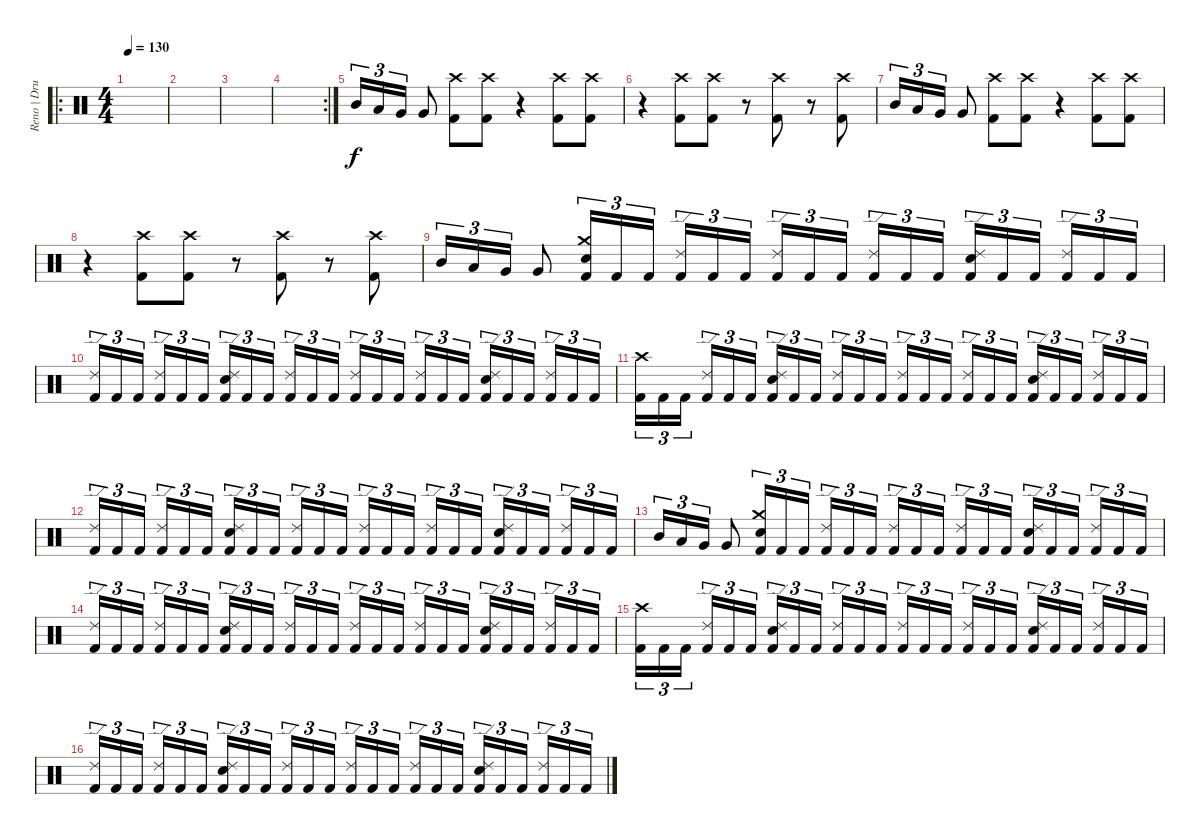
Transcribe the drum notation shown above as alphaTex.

\track ("Reno | Drums" "Reno | Dru") {instrument percussion}
\staff {score}
\articulation defaults
\ro
\ts (4 4)
\tempo 130
\clef neutral
\ks c
|
|
|
\rc 2
|
"Mid Tom (hit)".16{tu (3 2)} "Low Tom (hit)".16{tu (3 2)} "Very Low Tom (hit)".16{tu (3 2)} "Very Low Tom (hit)".8 ("Crash high (hit)" "Kick (hit) 2").8 ("Crash high (hit)" "Kick (hit) 2").8 r.4 ("Crash high (hit)" "Kick (hit) 2").8 ("Crash high (hit)" "Kick (hit) 2").8 |
r.4 ("Crash high (hit)" "Kick (hit) 2").8 ("Crash high (hit)" "Kick (hit) 2").8 r.8 ("Crash high (hit)" "Kick (hit) 2").8 r.8 ("Crash high (hit)" "Kick (hit) 2").8 |
"Mid Tom (hit)".16{tu (3 2)} "Low Tom (hit)".16{tu (3 2)} "Very Low Tom (hit)".16{tu (3 2)} "Very Low Tom (hit)".8 ("Crash high (hit)" "Kick (hit) 2").8 ("Crash high (hit)" "Kick (hit) 2").8 r.4 ("Crash high (hit)" "Kick (hit) 2").8 ("Crash high (hit)" "Kick (hit) 2").8 |
r.4 ("Crash high (hit)" "Kick (hit) 2").8 ("Crash high (hit)" "Kick (hit) 2").8 r.8 ("Crash high (hit)" "Kick (hit) 2").8 r.8 ("Crash high (hit)" "Kick (hit) 2").8 |
"Mid Tom (hit)".16{tu (3 2)} "Low Tom (hit)".16{tu (3 2)} "Very Low Tom (hit)".16{tu (3 2)} "Very Low Tom (hit)".8 ("Crash medium (hit)" "Electric Snare (hit)" "Kick (hit) 2").16{tu (3 2)} "Kick (hit) 2".16{tu (3 2)} "Kick (hit) 2".16{tu (3 2)} ("Ride (edge) 2" "Kick (hit) 2").16{tu (3 2)} "Kick (hit) 2".16{tu (3 2)} "Kick (hit) 2".16{tu (3 2)} ("Ride (edge) 2" "Kick (hit) 2").16{tu (3 2)} "Kick (hit) 2".16{tu (3 2)} "Kick (hit) 2".16{tu (3 2)} ("Ride (edge) 2" "Kick (hit) 2").16{tu (3 2)} "Kick (hit) 2".16{tu (3 2)} "Kick (hit) 2".16{tu (3 2)} ("Ride (edge) 2" "Electric Snare (hit)" "Kick (hit) 2").16{tu (3 2)} "Kick (hit) 2".16{tu (3 2)} "Kick (hit) 2".16{tu (3 2)} ("Ride (edge) 2" "Kick (hit) 2").16{tu (3 2)} "Kick (hit) 2".16{tu (3 2)} "Kick (hit) 2".16{tu (3 2)} |
("Ride (edge) 2" "Kick (hit) 2").16{tu (3 2)} "Kick (hit) 2".16{tu (3 2)} "Kick (hit) 2".16{tu (3 2)} ("Ride (edge) 2" "Kick (hit) 2").16{tu (3 2)} "Kick (hit) 2".16{tu (3 2)} "Kick (hit) 2".16{tu (3 2)} ("Ride (edge) 2" "Electric Snare (hit)" "Kick (hit) 2").16{tu (3 2)} "Kick (hit) 2".16{tu (3 2)} "Kick (hit) 2".16{tu (3 2)} ("Ride (edge) 2" "Kick (hit) 2").16{tu (3 2)} "Kick (hit) 2".16{tu (3 2)} "Kick (hit) 2".16{tu (3 2)} ("Ride (edge) 2" "Kick (hit) 2").16{tu (3 2)} "Kick (hit) 2".16{tu (3 2)} "Kick (hit) 2".16{tu (3 2)} ("Ride (edge) 2" "Kick (hit) 2").16{tu (3 2)} "Kick (hit) 2".16{tu (3 2)} "Kick (hit) 2".16{tu (3 2)} ("Ride (edge) 2" "Electric Snare (hit)" "Kick (hit) 2").16{tu (3 2)} "Kick (hit) 2".16{tu (3 2)} "Kick (hit) 2".16{tu (3 2)} ("Ride (edge) 2" "Kick (hit) 2").16{tu (3 2)} "Kick (hit) 2".16{tu (3 2)} "Kick (hit) 2".16{tu (3 2)} |
("Crash high (hit)" "Kick (hit) 2").16{tu (3 2)} "Kick (hit) 2".16{tu (3 2)} "Kick (hit) 2".16{tu (3 2)} ("Ride (edge) 2" "Kick (hit) 2").16{tu (3 2)} "Kick (hit) 2".16{tu (3 2)} "Kick (hit) 2".16{tu (3 2)} ("Ride (edge) 2" "Electric Snare (hit)" "Kick (hit) 2").16{tu (3 2)} "Kick (hit) 2".16{tu (3 2)} "Kick (hit) 2".16{tu (3 2)} ("Ride (edge) 2" "Kick (hit) 2").16{tu (3 2)} "Kick (hit) 2".16{tu (3 2)} "Kick (hit) 2".16{tu (3 2)} ("Ride (edge) 2" "Kick (hit) 2").16{tu (3 2)} "Kick (hit) 2".16{tu (3 2)} "Kick (hit) 2".16{tu (3 2)} ("Ride (edge) 2" "Kick (hit) 2").16{tu (3 2)} "Kick (hit) 2".16{tu (3 2)} "Kick (hit) 2".16{tu (3 2)} ("Ride (edge) 2" "Electric Snare (hit)" "Kick (hit) 2").16{tu (3 2)} "Kick (hit) 2".16{tu (3 2)} "Kick (hit) 2".16{tu (3 2)} ("Ride (edge) 2" "Kick (hit) 2").16{tu (3 2)} "Kick (hit) 2".16{tu (3 2)} "Kick (hit) 2".16{tu (3 2)} |
("Ride (edge) 2" "Kick (hit) 2").16{tu (3 2)} "Kick (hit) 2".16{tu (3 2)} "Kick (hit) 2".16{tu (3 2)} ("Ride (edge) 2" "Kick (hit) 2").16{tu (3 2)} "Kick (hit) 2".16{tu (3 2)} "Kick (hit) 2".16{tu (3 2)} ("Ride (edge) 2" "Electric Snare (hit)" "Kick (hit) 2").16{tu (3 2)} "Kick (hit) 2".16{tu (3 2)} "Kick (hit) 2".16{tu (3 2)} ("Ride (edge) 2" "Kick (hit) 2").16{tu (3 2)} "Kick (hit) 2".16{tu (3 2)} "Kick (hit) 2".16{tu (3 2)} ("Ride (edge) 2" "Kick (hit) 2").16{tu (3 2)} "Kick (hit) 2".16{tu (3 2)} "Kick (hit) 2".16{tu (3 2)} ("Ride (edge) 2" "Kick (hit) 2").16{tu (3 2)} "Kick (hit) 2".16{tu (3 2)} "Kick (hit) 2".16{tu (3 2)} ("Ride (edge) 2" "Electric Snare (hit)" "Kick (hit) 2").16{tu (3 2)} "Kick (hit) 2".16{tu (3 2)} "Kick (hit) 2".16{tu (3 2)} ("Ride (edge) 2" "Kick (hit) 2").16{tu (3 2)} "Kick (hit) 2".16{tu (3 2)} "Kick (hit) 2".16{tu (3 2)} |
"Mid Tom (hit)".16{tu (3 2)} "Low Tom (hit)".16{tu (3 2)} "Very Low Tom (hit)".16{tu (3 2)} "Very Low Tom (hit)".8 ("Crash medium (hit)" "Electric Snare (hit)" "Kick (hit) 2").16{tu (3 2)} "Kick (hit) 2".16{tu (3 2)} "Kick (hit) 2".16{tu (3 2)} ("Ride (edge) 2" "Kick (hit) 2").16{tu (3 2)} "Kick (hit) 2".16{tu (3 2)} "Kick (hit) 2".16{tu (3 2)} ("Ride (edge) 2" "Kick (hit) 2").16{tu (3 2)} "Kick (hit) 2".16{tu (3 2)} "Kick (hit) 2".16{tu (3 2)} ("Ride (edge) 2" "Kick (hit) 2").16{tu (3 2)} "Kick (hit) 2".16{tu (3 2)} "Kick (hit) 2".16{tu (3 2)} ("Ride (edge) 2" "Electric Snare (hit)" "Kick (hit) 2").16{tu (3 2)} "Kick (hit) 2".16{tu (3 2)} "Kick (hit) 2".16{tu (3 2)} ("Ride (edge) 2" "Kick (hit) 2").16{tu (3 2)} "Kick (hit) 2".16{tu (3 2)} "Kick (hit) 2".16{tu (3 2)} |
("Ride (edge) 2" "Kick (hit) 2").16{tu (3 2)} "Kick (hit) 2".16{tu (3 2)} "Kick (hit) 2".16{tu (3 2)} ("Ride (edge) 2" "Kick (hit) 2").16{tu (3 2)} "Kick (hit) 2".16{tu (3 2)} "Kick (hit) 2".16{tu (3 2)} ("Ride (edge) 2" "Electric Snare (hit)" "Kick (hit) 2").16{tu (3 2)} "Kick (hit) 2".16{tu (3 2)} "Kick (hit) 2".16{tu (3 2)} ("Ride (edge) 2" "Kick (hit) 2").16{tu (3 2)} "Kick (hit) 2".16{tu (3 2)} "Kick (hit) 2".16{tu (3 2)} ("Ride (edge) 2" "Kick (hit) 2").16{tu (3 2)} "Kick (hit) 2".16{tu (3 2)} "Kick (hit) 2".16{tu (3 2)} ("Ride (edge) 2" "Kick (hit) 2").16{tu (3 2)} "Kick (hit) 2".16{tu (3 2)} "Kick (hit) 2".16{tu (3 2)} ("Ride (edge) 2" "Electric Snare (hit)" "Kick (hit) 2").16{tu (3 2)} "Kick (hit) 2".16{tu (3 2)} "Kick (hit) 2".16{tu (3 2)} ("Ride (edge) 2" "Kick (hit) 2").16{tu (3 2)} "Kick (hit) 2".16{tu (3 2)} "Kick (hit) 2".16{tu (3 2)} |
("Crash high (hit)" "Kick (hit) 2").16{tu (3 2)} "Kick (hit) 2".16{tu (3 2)} "Kick (hit) 2".16{tu (3 2)} ("Ride (edge) 2" "Kick (hit) 2").16{tu (3 2)} "Kick (hit) 2".16{tu (3 2)} "Kick (hit) 2".16{tu (3 2)} ("Ride (edge) 2" "Electric Snare (hit)" "Kick (hit) 2").16{tu (3 2)} "Kick (hit) 2".16{tu (3 2)} "Kick (hit) 2".16{tu (3 2)} ("Ride (edge) 2" "Kick (hit) 2").16{tu (3 2)} "Kick (hit) 2".16{tu (3 2)} "Kick (hit) 2".16{tu (3 2)} ("Ride (edge) 2" "Kick (hit) 2").16{tu (3 2)} "Kick (hit) 2".16{tu (3 2)} "Kick (hit) 2".16{tu (3 2)} ("Ride (edge) 2" "Kick (hit) 2").16{tu (3 2)} "Kick (hit) 2".16{tu (3 2)} "Kick (hit) 2".16{tu (3 2)} ("Ride (edge) 2" "Electric Snare (hit)" "Kick (hit) 2").16{tu (3 2)} "Kick (hit) 2".16{tu (3 2)} "Kick (hit) 2".16{tu (3 2)} ("Ride (edge) 2" "Kick (hit) 2").16{tu (3 2)} "Kick (hit) 2".16{tu (3 2)} "Kick (hit) 2".16{tu (3 2)} |
("Ride (edge) 2" "Kick (hit) 2").16{tu (3 2)} "Kick (hit) 2".16{tu (3 2)} "Kick (hit) 2".16{tu (3 2)} ("Ride (edge) 2" "Kick (hit) 2").16{tu (3 2)} "Kick (hit) 2".16{tu (3 2)} "Kick (hit) 2".16{tu (3 2)} ("Ride (edge) 2" "Electric Snare (hit)" "Kick (hit) 2").16{tu (3 2)} "Kick (hit) 2".16{tu (3 2)} "Kick (hit) 2".16{tu (3 2)} ("Ride (edge) 2" "Kick (hit) 2").16{tu (3 2)} "Kick (hit) 2".16{tu (3 2)} "Kick (hit) 2".16{tu (3 2)} ("Ride (edge) 2" "Kick (hit) 2").16{tu (3 2)} "Kick (hit) 2".16{tu (3 2)} "Kick (hit) 2".16{tu (3 2)} ("Ride (edge) 2" "Kick (hit) 2").16{tu (3 2)} "Kick (hit) 2".16{tu (3 2)} "Kick (hit) 2".16{tu (3 2)} ("Ride (edge) 2" "Electric Snare (hit)" "Kick (hit) 2").16{tu (3 2)} "Kick (hit) 2".16{tu (3 2)} "Kick (hit) 2".16{tu (3 2)} ("Ride (edge) 2" "Kick (hit) 2").16{tu (3 2)} "Kick (hit) 2".16{tu (3 2)} "Kick (hit) 2".16{tu (3 2)}
